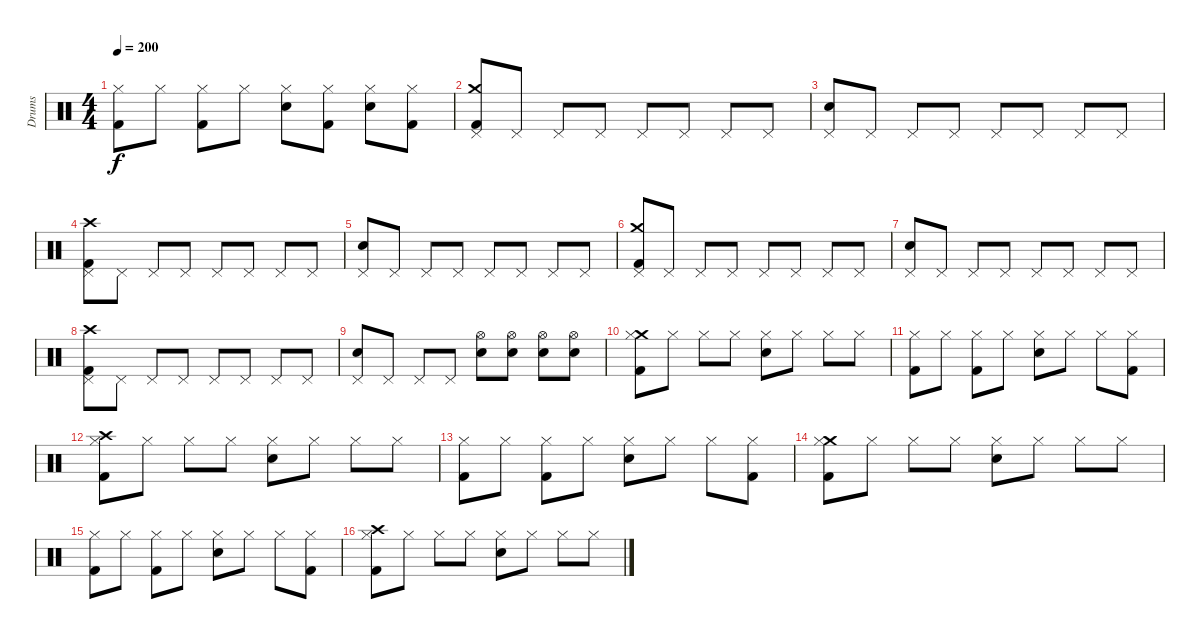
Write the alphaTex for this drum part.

\track ("Drums" "Drums") {instrument percussion}
\staff {score}
\articulation defaults
\ts (4 4)
\tempo 200
\clef neutral
\ks c
("Hi-Hat (closed)" "Kick (hit) 2").8{dy f} "Hi-Hat (closed)".8 ("Hi-Hat (closed)" "Kick (hit) 2").8 "Hi-Hat (closed)".8 ("Hi-Hat (closed)" "Electric Snare (hit)").8 ("Hi-Hat (closed)" "Kick (hit) 2").8 ("Hi-Hat (closed)" "Electric Snare (hit)").8 ("Hi-Hat (closed)" "Kick (hit) 2").8 |
("Crash medium (hit)" "Pedal Hi-Hat (hit)" "Kick (hit) 2").8 "Pedal Hi-Hat (hit)".8 "Pedal Hi-Hat (hit)".8 "Pedal Hi-Hat (hit)".8 "Pedal Hi-Hat (hit)".8 "Pedal Hi-Hat (hit)".8 "Pedal Hi-Hat (hit)".8 "Pedal Hi-Hat (hit)".8 |
("Pedal Hi-Hat (hit)" "Electric Snare (hit)").8 "Pedal Hi-Hat (hit)".8 "Pedal Hi-Hat (hit)".8 "Pedal Hi-Hat (hit)".8 "Pedal Hi-Hat (hit)".8 "Pedal Hi-Hat (hit)".8 "Pedal Hi-Hat (hit)".8 "Pedal Hi-Hat (hit)".8 |
("Crash high (hit)" "Pedal Hi-Hat (hit)" "Kick (hit) 2").8 "Pedal Hi-Hat (hit)".8 "Pedal Hi-Hat (hit)".8 "Pedal Hi-Hat (hit)".8 "Pedal Hi-Hat (hit)".8 "Pedal Hi-Hat (hit)".8 "Pedal Hi-Hat (hit)".8 "Pedal Hi-Hat (hit)".8 |
("Pedal Hi-Hat (hit)" "Electric Snare (hit)").8 "Pedal Hi-Hat (hit)".8 "Pedal Hi-Hat (hit)".8 "Pedal Hi-Hat (hit)".8 "Pedal Hi-Hat (hit)".8 "Pedal Hi-Hat (hit)".8 "Pedal Hi-Hat (hit)".8 "Pedal Hi-Hat (hit)".8 |
("Crash medium (hit)" "Pedal Hi-Hat (hit)" "Kick (hit) 2").8 "Pedal Hi-Hat (hit)".8 "Pedal Hi-Hat (hit)".8 "Pedal Hi-Hat (hit)".8 "Pedal Hi-Hat (hit)".8 "Pedal Hi-Hat (hit)".8 "Pedal Hi-Hat (hit)".8 "Pedal Hi-Hat (hit)".8 |
("Pedal Hi-Hat (hit)" "Electric Snare (hit)").8 "Pedal Hi-Hat (hit)".8 "Pedal Hi-Hat (hit)".8 "Pedal Hi-Hat (hit)".8 "Pedal Hi-Hat (hit)".8 "Pedal Hi-Hat (hit)".8 "Pedal Hi-Hat (hit)".8 "Pedal Hi-Hat (hit)".8 |
("Crash high (hit)" "Pedal Hi-Hat (hit)" "Kick (hit) 2").8 "Pedal Hi-Hat (hit)".8 "Pedal Hi-Hat (hit)".8 "Pedal Hi-Hat (hit)".8 "Pedal Hi-Hat (hit)".8 "Pedal Hi-Hat (hit)".8 "Pedal Hi-Hat (hit)".8 "Pedal Hi-Hat (hit)".8 |
("Pedal Hi-Hat (hit)" "Electric Snare (hit)").8 "Pedal Hi-Hat (hit)".8 "Pedal Hi-Hat (hit)".8 "Pedal Hi-Hat (hit)".8 ("Hi-Hat (open)" "Electric Snare (hit)").8 ("Hi-Hat (open)" "Electric Snare (hit)").8 ("Hi-Hat (open)" "Electric Snare (hit)").8 ("Hi-Hat (open)" "Electric Snare (hit)").8 |
("Crash medium (hit)" "Hi-Hat (closed)" "Kick (hit) 2").8 "Hi-Hat (closed)".8 "Hi-Hat (closed)".8 "Hi-Hat (closed)".8 ("Hi-Hat (closed)" "Electric Snare (hit)").8 "Hi-Hat (closed)".8 "Hi-Hat (closed)".8 "Hi-Hat (closed)".8 |
("Hi-Hat (closed)" "Kick (hit) 2").8 "Hi-Hat (closed)".8 ("Hi-Hat (closed)" "Kick (hit) 2").8 "Hi-Hat (closed)".8 ("Hi-Hat (closed)" "Electric Snare (hit)").8 "Hi-Hat (closed)".8 "Hi-Hat (closed)".8 ("Hi-Hat (closed)" "Kick (hit) 2").8 |
("Crash high (hit)" "Hi-Hat (closed)" "Kick (hit) 2").8 "Hi-Hat (closed)".8 "Hi-Hat (closed)".8 "Hi-Hat (closed)".8 ("Hi-Hat (closed)" "Electric Snare (hit)").8 "Hi-Hat (closed)".8 "Hi-Hat (closed)".8 "Hi-Hat (closed)".8 |
("Hi-Hat (closed)" "Kick (hit) 2").8 "Hi-Hat (closed)".8 ("Hi-Hat (closed)" "Kick (hit) 2").8 "Hi-Hat (closed)".8 ("Hi-Hat (closed)" "Electric Snare (hit)").8 "Hi-Hat (closed)".8 "Hi-Hat (closed)".8 ("Hi-Hat (closed)" "Kick (hit) 2").8 |
("Crash medium (hit)" "Hi-Hat (closed)" "Kick (hit) 2").8 "Hi-Hat (closed)".8 "Hi-Hat (closed)".8 "Hi-Hat (closed)".8 ("Hi-Hat (closed)" "Electric Snare (hit)").8 "Hi-Hat (closed)".8 "Hi-Hat (closed)".8 "Hi-Hat (closed)".8 |
("Hi-Hat (closed)" "Kick (hit) 2").8 "Hi-Hat (closed)".8 ("Hi-Hat (closed)" "Kick (hit) 2").8 "Hi-Hat (closed)".8 ("Hi-Hat (closed)" "Electric Snare (hit)").8 "Hi-Hat (closed)".8 "Hi-Hat (closed)".8 ("Hi-Hat (closed)" "Kick (hit) 2").8 |
("Crash high (hit)" "Hi-Hat (closed)" "Kick (hit) 2").8 "Hi-Hat (closed)".8 "Hi-Hat (closed)".8 "Hi-Hat (closed)".8 ("Hi-Hat (closed)" "Electric Snare (hit)").8 "Hi-Hat (closed)".8 "Hi-Hat (closed)".8 "Hi-Hat (closed)".8
